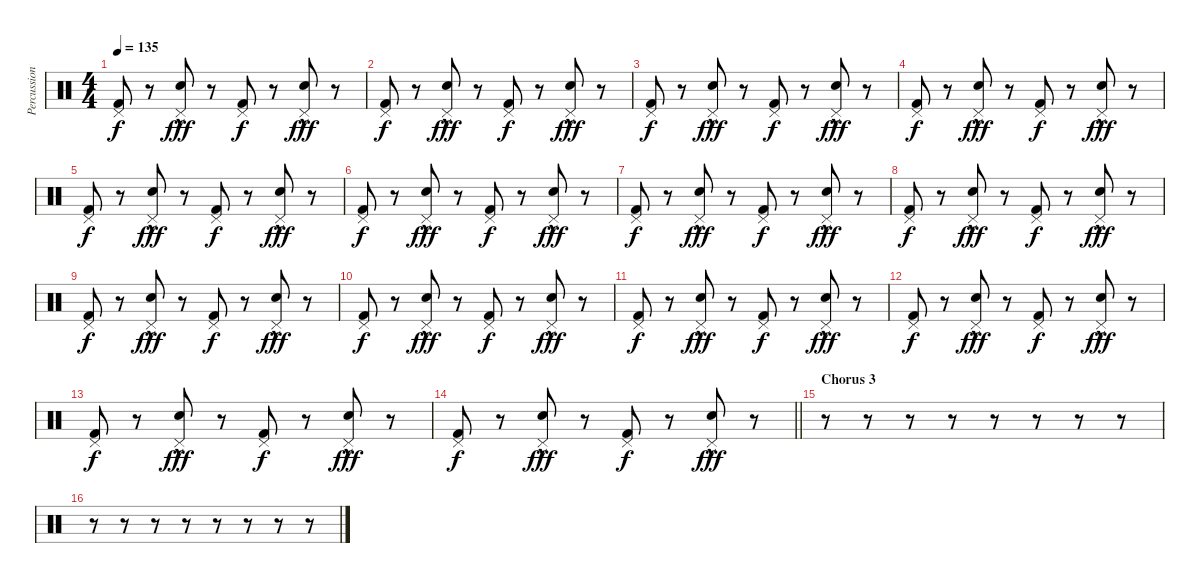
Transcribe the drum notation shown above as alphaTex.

\track ("Percussion" "Percussion") {instrument percussion}
\staff {score}
\articulation defaults
\ts (4 4)
\tempo 135
\clef neutral
\ks c
("Kick (hit) 2" "Pedal Hi-Hat (hit)").8{dy f} r.8 ("Snare (hit) 2"{hac} "Pedal Hi-Hat (hit)").8{dy fff} r.8 ("Kick (hit) 2" "Pedal Hi-Hat (hit)").8{dy f} r.8 ("Snare (hit) 2"{hac} "Pedal Hi-Hat (hit)").8{dy fff} r.8 |
("Kick (hit) 2" "Pedal Hi-Hat (hit)").8{dy f} r.8 ("Snare (hit) 2"{hac} "Pedal Hi-Hat (hit)").8{dy fff} r.8 ("Kick (hit) 2" "Pedal Hi-Hat (hit)").8{dy f} r.8 ("Snare (hit) 2"{hac} "Pedal Hi-Hat (hit)").8{dy fff} r.8 |
("Kick (hit) 2" "Pedal Hi-Hat (hit)").8{dy f} r.8 ("Snare (hit) 2"{hac} "Pedal Hi-Hat (hit)").8{dy fff} r.8 ("Kick (hit) 2" "Pedal Hi-Hat (hit)").8{dy f} r.8 ("Snare (hit) 2"{hac} "Pedal Hi-Hat (hit)").8{dy fff} r.8 |
("Kick (hit) 2" "Pedal Hi-Hat (hit)").8{dy f} r.8 ("Snare (hit) 2"{hac} "Pedal Hi-Hat (hit)").8{dy fff} r.8 ("Kick (hit) 2" "Pedal Hi-Hat (hit)").8{dy f} r.8 ("Snare (hit) 2"{hac} "Pedal Hi-Hat (hit)").8{dy fff} r.8 |
("Kick (hit) 2" "Pedal Hi-Hat (hit)").8{dy f} r.8 ("Snare (hit) 2"{hac} "Pedal Hi-Hat (hit)").8{dy fff} r.8 ("Kick (hit) 2" "Pedal Hi-Hat (hit)").8{dy f} r.8 ("Snare (hit) 2"{hac} "Pedal Hi-Hat (hit)").8{dy fff} r.8 |
("Kick (hit) 2" "Pedal Hi-Hat (hit)").8{dy f} r.8 ("Snare (hit) 2"{hac} "Pedal Hi-Hat (hit)").8{dy fff} r.8 ("Kick (hit) 2" "Pedal Hi-Hat (hit)").8{dy f} r.8 ("Snare (hit) 2"{hac} "Pedal Hi-Hat (hit)").8{dy fff} r.8 |
("Kick (hit) 2" "Pedal Hi-Hat (hit)").8{dy f} r.8 ("Snare (hit) 2"{hac} "Pedal Hi-Hat (hit)").8{dy fff} r.8 ("Kick (hit) 2" "Pedal Hi-Hat (hit)").8{dy f} r.8 ("Snare (hit) 2"{hac} "Pedal Hi-Hat (hit)").8{dy fff} r.8 |
("Kick (hit) 2" "Pedal Hi-Hat (hit)").8{dy f} r.8 ("Snare (hit) 2"{hac} "Pedal Hi-Hat (hit)").8{dy fff} r.8 ("Kick (hit) 2" "Pedal Hi-Hat (hit)").8{dy f} r.8 ("Snare (hit) 2"{hac} "Pedal Hi-Hat (hit)").8{dy fff} r.8 |
("Kick (hit) 2" "Pedal Hi-Hat (hit)").8{dy f} r.8 ("Snare (hit) 2"{hac} "Pedal Hi-Hat (hit)").8{dy fff} r.8 ("Kick (hit) 2" "Pedal Hi-Hat (hit)").8{dy f} r.8 ("Snare (hit) 2"{hac} "Pedal Hi-Hat (hit)").8{dy fff} r.8 |
("Kick (hit) 2" "Pedal Hi-Hat (hit)").8{dy f} r.8 ("Snare (hit) 2"{hac} "Pedal Hi-Hat (hit)").8{dy fff} r.8 ("Kick (hit) 2" "Pedal Hi-Hat (hit)").8{dy f} r.8 ("Snare (hit) 2"{hac} "Pedal Hi-Hat (hit)").8{dy fff} r.8 |
("Kick (hit) 2" "Pedal Hi-Hat (hit)").8{dy f} r.8 ("Snare (hit) 2"{hac} "Pedal Hi-Hat (hit)").8{dy fff} r.8 ("Kick (hit) 2" "Pedal Hi-Hat (hit)").8{dy f} r.8 ("Snare (hit) 2"{hac} "Pedal Hi-Hat (hit)").8{dy fff} r.8 |
("Kick (hit) 2" "Pedal Hi-Hat (hit)").8{dy f} r.8 ("Snare (hit) 2"{hac} "Pedal Hi-Hat (hit)").8{dy fff} r.8 ("Kick (hit) 2" "Pedal Hi-Hat (hit)").8{dy f} r.8 ("Snare (hit) 2"{hac} "Pedal Hi-Hat (hit)").8{dy fff} r.8 |
("Kick (hit) 2" "Pedal Hi-Hat (hit)").8{dy f} r.8 ("Snare (hit) 2"{hac} "Pedal Hi-Hat (hit)").8{dy fff} r.8 ("Kick (hit) 2" "Pedal Hi-Hat (hit)").8{dy f} r.8 ("Snare (hit) 2"{hac} "Pedal Hi-Hat (hit)").8{dy fff} r.8 |
\barLineRight lightlight
("Kick (hit) 2" "Pedal Hi-Hat (hit)").8{dy f} r.8 ("Snare (hit) 2"{hac} "Pedal Hi-Hat (hit)").8{dy fff} r.8 ("Kick (hit) 2" "Pedal Hi-Hat (hit)").8{dy f} r.8 ("Snare (hit) 2"{hac} "Pedal Hi-Hat (hit)").8{dy fff} r.8 |
\section ("" "Chorus 3")
r.8 r.8 r.8 r.8 r.8 r.8 r.8 r.8 |
r.8 r.8 r.8 r.8 r.8 r.8 r.8 r.8
